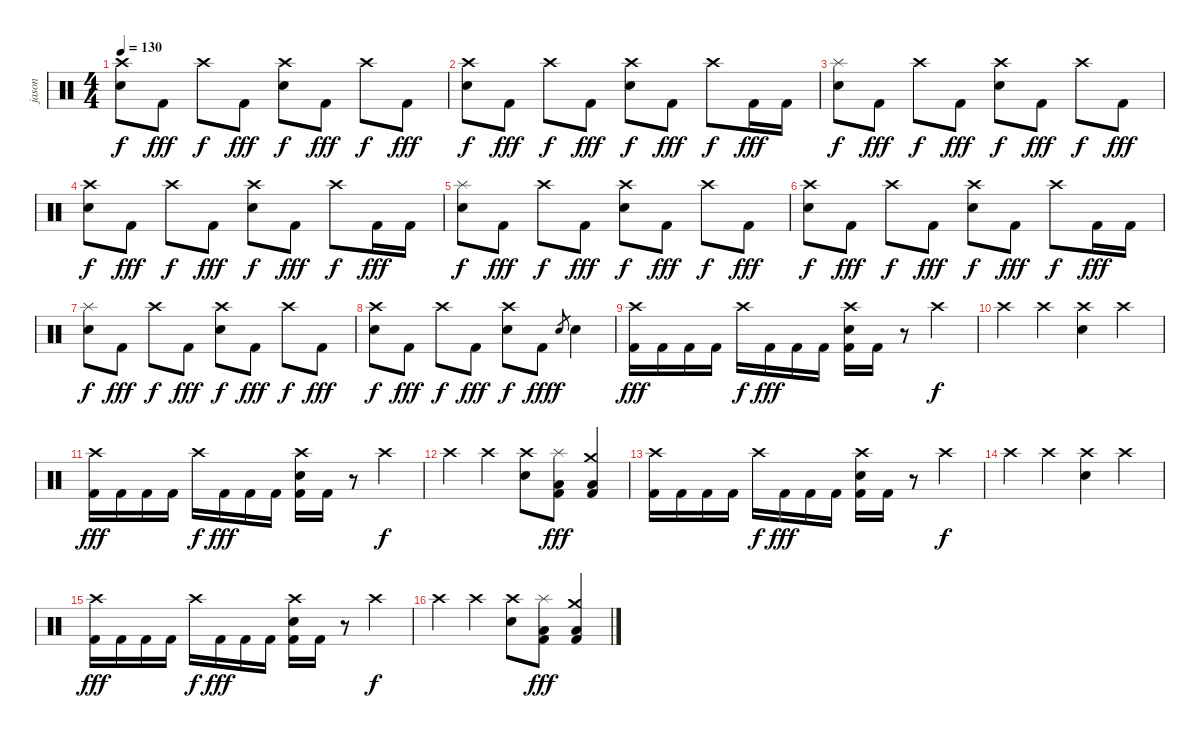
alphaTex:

\track ("jason" "jason") {solo instrument percussion}
\staff {score}
\articulation defaults
\ts (4 4)
\tempo 130
\clef neutral
\ks c
("Crash high (hit)" "Snare (hit) 2").8{dy f} "Kick (hit) 2".8{dy fff} "Crash high (hit)".8{dy f} "Kick (hit) 2".8{dy fff} ("Crash high (hit)" "Snare (hit) 2").8{dy f} "Kick (hit) 2".8{dy fff} "Crash high (hit)".8{dy f} "Kick (hit) 2".8{dy fff} |
("Crash high (hit)" "Snare (hit) 2").8{dy f} "Kick (hit) 2".8{dy fff} "Crash high (hit)".8{dy f} "Kick (hit) 2".8{dy fff} ("Crash high (hit)" "Snare (hit) 2").8{dy f} "Kick (hit) 2".8{dy fff} "Crash high (hit)".8{dy f} "Kick (hit) 2".16{dy fff} "Kick (hit) 2".16 |
("Splash (hit)" "Snare (hit) 2").8{dy f} "Kick (hit) 2".8{dy fff} "Crash high (hit)".8{dy f} "Kick (hit) 2".8{dy fff} ("Crash high (hit)" "Snare (hit) 2").8{dy f} "Kick (hit) 2".8{dy fff} "Crash high (hit)".8{dy f} "Kick (hit) 2".8{dy fff} |
("Crash high (hit)" "Snare (hit) 2").8{dy f} "Kick (hit) 2".8{dy fff} "Crash high (hit)".8{dy f} "Kick (hit) 2".8{dy fff} ("Crash high (hit)" "Snare (hit) 2").8{dy f} "Kick (hit) 2".8{dy fff} "Crash high (hit)".8{dy f} "Kick (hit) 2".16{dy fff} "Kick (hit) 2".16 |
("Splash (hit)" "Snare (hit) 2").8{dy f} "Kick (hit) 2".8{dy fff} "Crash high (hit)".8{dy f} "Kick (hit) 2".8{dy fff} ("Crash high (hit)" "Snare (hit) 2").8{dy f} "Kick (hit) 2".8{dy fff} "Crash high (hit)".8{dy f} "Kick (hit) 2".8{dy fff} |
("Crash high (hit)" "Snare (hit) 2").8{dy f} "Kick (hit) 2".8{dy fff} "Crash high (hit)".8{dy f} "Kick (hit) 2".8{dy fff} ("Crash high (hit)" "Snare (hit) 2").8{dy f} "Kick (hit) 2".8{dy fff} "Crash high (hit)".8{dy f} "Kick (hit) 2".16{dy fff} "Kick (hit) 2".16 |
("Splash (hit)" "Snare (hit) 2").8{dy f} "Kick (hit) 2".8{dy fff} "Crash high (hit)".8{dy f} "Kick (hit) 2".8{dy fff} ("Crash high (hit)" "Snare (hit) 2").8{dy f} "Kick (hit) 2".8{dy fff} "Crash high (hit)".8{dy f} "Kick (hit) 2".8{dy fff} |
("Crash high (hit)" "Snare (hit) 2").8{dy f} "Kick (hit) 2".8{dy fff} "Crash high (hit)".8{dy f} "Kick (hit) 2".8{dy fff} ("Crash high (hit)" "Snare (hit) 2").8{dy f} "Kick (hit) 2".8{dy fff} "Snare (hit) 2".8{gr dy f} "Snare (hit) 2".4 |
("Crash high (hit)" "Kick (hit) 2").16{dy fff} "Kick (hit) 2".16 "Kick (hit) 2".16 "Kick (hit) 2".16 "Crash high (hit)".16{dy f} "Kick (hit) 2".16{dy fff} "Kick (hit) 2".16 "Kick (hit) 2".16 ("Crash high (hit)" "Snare (hit) 2" "Kick (hit) 2").16 "Kick (hit) 2".16 r.8 "Crash high (hit)".4{dy f} |
"Crash high (hit)".4 "Crash high (hit)".4 ("Crash high (hit)" "Snare (hit) 2").4 "Crash high (hit)".4 |
("Crash high (hit)" "Kick (hit) 2").16{dy fff} "Kick (hit) 2".16 "Kick (hit) 2".16 "Kick (hit) 2".16 "Crash high (hit)".16{dy f} "Kick (hit) 2".16{dy fff} "Kick (hit) 2".16 "Kick (hit) 2".16 ("Crash high (hit)" "Snare (hit) 2" "Kick (hit) 2").16 "Kick (hit) 2".16 r.8 "Crash high (hit)".4{dy f} |
"Crash high (hit)".4 "Crash high (hit)".4 ("Crash high (hit)" "Snare (hit) 2").8 ("Splash (hit)" "Low Tom (hit)" "Kick (hit) 2").8{dy fff} ("Crash medium (hit)" "Low Floor Tom (hit)" "Kick (hit) 2").4 |
("Crash high (hit)" "Kick (hit) 2").16 "Kick (hit) 2".16 "Kick (hit) 2".16 "Kick (hit) 2".16 "Crash high (hit)".16{dy f} "Kick (hit) 2".16{dy fff} "Kick (hit) 2".16 "Kick (hit) 2".16 ("Crash high (hit)" "Snare (hit) 2" "Kick (hit) 2").16 "Kick (hit) 2".16 r.8 "Crash high (hit)".4{dy f} |
"Crash high (hit)".4 "Crash high (hit)".4 ("Crash high (hit)" "Snare (hit) 2").4 "Crash high (hit)".4 |
("Crash high (hit)" "Kick (hit) 2").16{dy fff} "Kick (hit) 2".16 "Kick (hit) 2".16 "Kick (hit) 2".16 "Crash high (hit)".16{dy f} "Kick (hit) 2".16{dy fff} "Kick (hit) 2".16 "Kick (hit) 2".16 ("Crash high (hit)" "Snare (hit) 2" "Kick (hit) 2").16 "Kick (hit) 2".16 r.8 "Crash high (hit)".4{dy f} |
"Crash high (hit)".4 "Crash high (hit)".4 ("Crash high (hit)" "Snare (hit) 2").8 ("Splash (hit)" "Low Tom (hit)" "Kick (hit) 2").8{dy fff} ("Crash medium (hit)" "Low Floor Tom (hit)" "Kick (hit) 2").4
